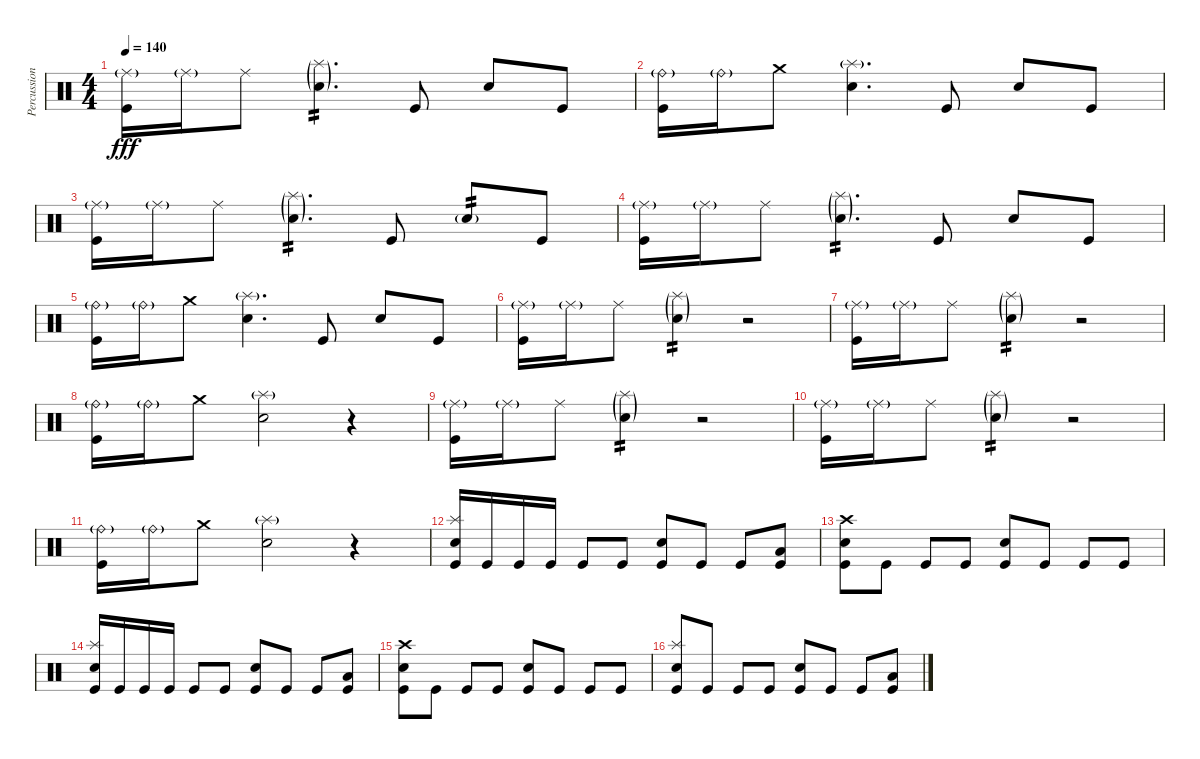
\track ("Percussion" "Percussion") {instrument percussion}
\staff {score}
\articulation defaults
\ts (4 4)
\tempo 140
\clef neutral
\ks c
("Ride (middle)"{g} "Kick (hit)").16{dy fff} "Ride (middle)"{g}.16 "Ride (middle)".8 ("Splash (hit)"{g} "Snare (hit) 2"{g}).4{d tp 2} "Kick (hit)".8 "Snare (hit) 2".8 "Kick (hit)".8 |
("Ride (bell)"{g} "Kick (hit)").16 "Ride (bell)"{g}.16 "Crash medium (hit)".8 ("Splash (hit)"{g} "Snare (hit) 2").4{d} "Kick (hit)".8 "Snare (hit) 2".8 "Kick (hit)".8 |
("Ride (middle)"{g} "Kick (hit)").16 "Ride (middle)"{g}.16 "Ride (middle)".8 ("Splash (hit)"{g} "Snare (hit) 2"{g}).4{d tp 2} "Kick (hit)".8 "Snare (hit) 2"{g}.8{tp 2} "Kick (hit)".8 |
("Ride (middle)"{g} "Kick (hit)").16 "Ride (middle)"{g}.16 "Ride (middle)".8 ("Splash (hit)"{g} "Snare (hit) 2"{g}).4{d tp 2} "Kick (hit)".8 "Snare (hit) 2".8 "Kick (hit)".8 |
("Ride (bell)"{g} "Kick (hit)").16 "Ride (bell)"{g}.16 "Crash medium (hit)".8 ("Splash (hit)"{g} "Snare (hit) 2").4{d} "Kick (hit)".8 "Snare (hit) 2".8 "Kick (hit)".8 |
("Ride (middle)"{g} "Kick (hit)").16 "Ride (middle)"{g}.16 "Ride (middle)".8 ("Splash (hit)"{g} "Snare (hit) 2"{g}).4{tp 2} r.2 |
("Ride (middle)"{g} "Kick (hit)").16 "Ride (middle)"{g}.16 "Ride (middle)".8 ("Splash (hit)"{g} "Snare (hit) 2"{g}).4{tp 2} r.2 |
("Ride (bell)"{g} "Kick (hit)").16 "Ride (bell)"{g}.16 "Crash medium (hit)".8 ("Splash (hit)"{g} "Snare (hit) 2").2 r.4 |
("Ride (middle)"{g} "Kick (hit)").16 "Ride (middle)"{g}.16 "Ride (middle)".8 ("Splash (hit)"{g} "Snare (hit) 2"{g}).4{tp 2} r.2 |
("Ride (middle)"{g} "Kick (hit)").16 "Ride (middle)"{g}.16 "Ride (middle)".8 ("Splash (hit)"{g} "Snare (hit) 2"{g}).4{tp 2} r.2 |
("Ride (bell)"{g} "Kick (hit)").16 "Ride (bell)"{g}.16 "Crash medium (hit)".8 ("Splash (hit)"{g} "Snare (hit) 2").2 r.4 |
("Splash (hit)" "Snare (hit) 2" "Kick (hit)").16 "Kick (hit)".16 "Kick (hit)".16 "Kick (hit)".16 "Kick (hit)".8 "Kick (hit)".8 ("Snare (hit) 2" "Kick (hit)").8 "Kick (hit)".8 "Kick (hit)".8 ("Low Floor Tom (hit)" "Kick (hit)").8 |
("Crash high (hit)" "Snare (hit) 2" "Kick (hit)").8 "Kick (hit)".8 "Kick (hit)".8 "Kick (hit)".8 ("Snare (hit) 2" "Kick (hit)").8 "Kick (hit)".8 "Kick (hit)".8 "Kick (hit)".8 |
("Splash (hit)" "Snare (hit) 2" "Kick (hit)").16 "Kick (hit)".16 "Kick (hit)".16 "Kick (hit)".16 "Kick (hit)".8 "Kick (hit)".8 ("Snare (hit) 2" "Kick (hit)").8 "Kick (hit)".8 "Kick (hit)".8 ("Low Floor Tom (hit)" "Kick (hit)").8 |
("Crash high (hit)" "Snare (hit) 2" "Kick (hit)").8 "Kick (hit)".8 "Kick (hit)".8 "Kick (hit)".8 ("Snare (hit) 2" "Kick (hit)").8 "Kick (hit)".8 "Kick (hit)".8 "Kick (hit)".8 |
("Splash (hit)" "Snare (hit) 2" "Kick (hit)").8 "Kick (hit)".8 "Kick (hit)".8 "Kick (hit)".8 ("Snare (hit) 2" "Kick (hit)").8 "Kick (hit)".8 "Kick (hit)".8 ("Low Floor Tom (hit)" "Kick (hit)").8
